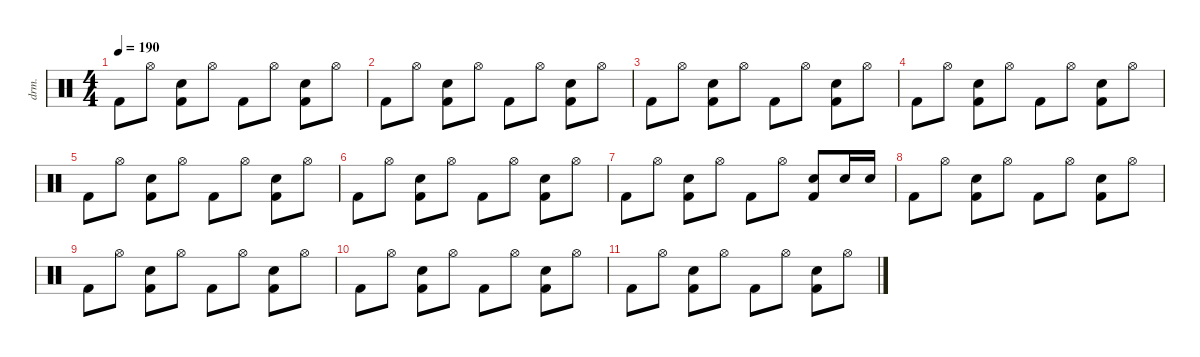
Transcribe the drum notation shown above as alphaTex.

\defaultSystemsLayout 4
\hideDynamics
\bracketExtendMode nobrackets
\track ("Drumkit" "drm.") {solo instrument percussion}
\staff {score}
\articulation defaults
\ts (4 4)
\tempo 190
\clef neutral
\ks c "Kick (hit) 2".8{dy mf beam Down} "Hi-Hat (open)".8{beam Down}
("Snare (hit) 2" "Kick (hit) 2").8{beam Down} "Hi-Hat (open)".8{beam Down} "Kick (hit) 2".8{beam Down} "Hi-Hat (open)".8{beam Down} ("Kick (hit) 2" "Snare (hit) 2").8{beam Down} "Hi-Hat (open)".8{beam Down} |
"Kick (hit) 2".8{beam Down} "Hi-Hat (open)".8{beam Down} ("Snare (hit) 2" "Kick (hit) 2").8{beam Down} "Hi-Hat (open)".8{beam Down} "Kick (hit) 2".8{beam Down} "Hi-Hat (open)".8{beam Down} ("Kick (hit) 2" "Snare (hit) 2").8{beam Down} "Hi-Hat (open)".8{beam Down} |
"Kick (hit) 2".8{beam Down} "Hi-Hat (open)".8{beam Down} ("Snare (hit) 2" "Kick (hit) 2").8{beam Down} "Hi-Hat (open)".8{beam Down} "Kick (hit) 2".8{beam Down} "Hi-Hat (open)".8{beam Down} ("Kick (hit) 2" "Snare (hit) 2").8{beam Down} "Hi-Hat (open)".8{beam Down} |
"Kick (hit) 2".8{beam Down} "Hi-Hat (open)".8{beam Down} ("Snare (hit) 2" "Kick (hit) 2").8{beam Down} "Hi-Hat (open)".8{beam Down} "Kick (hit) 2".8{beam Down} "Hi-Hat (open)".8{beam Down} ("Kick (hit) 2" "Snare (hit) 2").8{beam Down} "Hi-Hat (open)".8{beam Down} |
"Kick (hit) 2".8{beam Down} "Hi-Hat (open)".8{beam Down} ("Snare (hit) 2" "Kick (hit) 2").8{beam Down} "Hi-Hat (open)".8{beam Down} "Kick (hit) 2".8{beam Down} "Hi-Hat (open)".8{beam Down} ("Kick (hit) 2" "Snare (hit) 2").8{beam Down} "Hi-Hat (open)".8{beam Down} |
"Kick (hit) 2".8{beam Down} "Hi-Hat (open)".8{beam Down} ("Snare (hit) 2" "Kick (hit) 2").8{beam Down} "Hi-Hat (open)".8{beam Down} "Kick (hit) 2".8{beam Down} "Hi-Hat (open)".8{beam Down} ("Kick (hit) 2" "Snare (hit) 2").8{beam Down} "Hi-Hat (open)".8{beam Down} |
"Kick (hit) 2".8{beam Down} "Hi-Hat (open)".8{beam Down} ("Snare (hit) 2" "Kick (hit) 2").8{beam Down} "Hi-Hat (open)".8{beam Down} "Kick (hit) 2".8{beam Down} "Hi-Hat (open)".8{beam Down} ("Kick (hit) 2" "Snare (hit) 2").8{beam Up} "Snare (hit) 2".16{beam Up} "Snare (hit) 2".16{beam Up} |
"Kick (hit) 2".8{beam Down} "Hi-Hat (open)".8{beam Down} ("Snare (hit) 2" "Kick (hit) 2").8{beam Down} "Hi-Hat (open)".8{beam Down} "Kick (hit) 2".8{beam Down} "Hi-Hat (open)".8{beam Down} ("Kick (hit) 2" "Snare (hit) 2").8{beam Down} "Hi-Hat (open)".8{beam Down} |
"Kick (hit) 2".8{beam Down} "Hi-Hat (open)".8{beam Down} ("Snare (hit) 2" "Kick (hit) 2").8{beam Down} "Hi-Hat (open)".8{beam Down} "Kick (hit) 2".8{beam Down} "Hi-Hat (open)".8{beam Down} ("Kick (hit) 2" "Snare (hit) 2").8{beam Down} "Hi-Hat (open)".8{beam Down} |
"Kick (hit) 2".8{beam Down} "Hi-Hat (open)".8{beam Down} ("Snare (hit) 2" "Kick (hit) 2").8{beam Down} "Hi-Hat (open)".8{beam Down} "Kick (hit) 2".8{beam Down} "Hi-Hat (open)".8{beam Down} ("Kick (hit) 2" "Snare (hit) 2").8{beam Down} "Hi-Hat (open)".8{beam Down} |
"Kick (hit) 2".8{beam Down} "Hi-Hat (open)".8{beam Down} ("Snare (hit) 2" "Kick (hit) 2").8{beam Down} "Hi-Hat (open)".8{beam Down} "Kick (hit) 2".8{beam Down} "Hi-Hat (open)".8{beam Down} ("Kick (hit) 2" "Snare (hit) 2").8{beam Down} "Hi-Hat (open)".8{beam Down}
